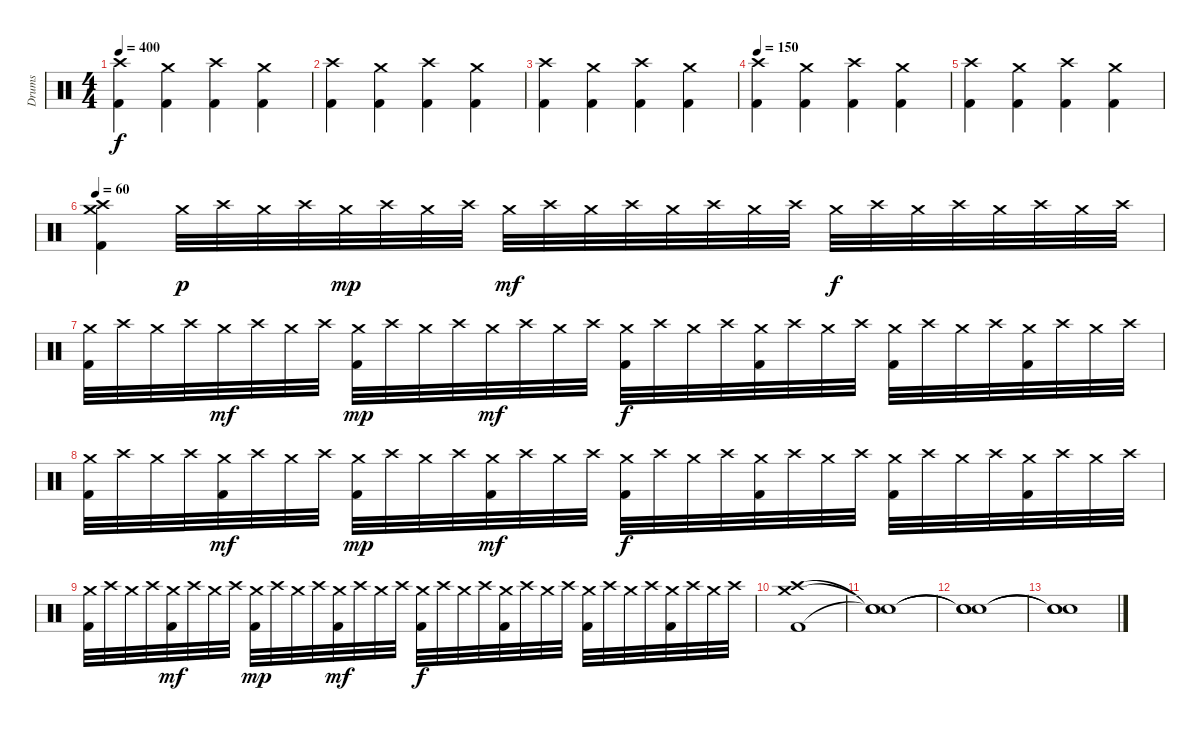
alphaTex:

\track ("Drums" "Drums") {instrument percussion}
\staff {score}
\articulation defaults
\ts (4 4)
\tempo 400
\clef neutral
\ks c
("Kick (hit) 2" "Crash high (hit)").4{dy f} ("Kick (hit) 2" "Crash medium (hit)").4 ("Kick (hit) 2" "Crash high (hit)").4 ("Kick (hit) 2" "Crash medium (hit)").4 |
("Kick (hit) 2" "Crash high (hit)").4 ("Kick (hit) 2" "Crash medium (hit)").4 ("Kick (hit) 2" "Crash high (hit)").4 ("Kick (hit) 2" "Crash medium (hit)").4 |
("Kick (hit) 2" "Crash high (hit)").4 ("Kick (hit) 2" "Crash medium (hit)").4 ("Kick (hit) 2" "Crash high (hit)").4 ("Kick (hit) 2" "Crash medium (hit)").4 |
\tempo 150
("Kick (hit) 2" "Crash high (hit)").4 ("Kick (hit) 2" "Crash medium (hit)").4 ("Kick (hit) 2" "Crash high (hit)").4 ("Kick (hit) 2" "Crash medium (hit)").4 |
("Kick (hit) 2" "Crash high (hit)").4 ("Kick (hit) 2" "Crash medium (hit)").4 ("Kick (hit) 2" "Crash high (hit)").4 ("Kick (hit) 2" "Crash medium (hit)").4 |
\tempo 60
("Kick (hit) 2" "Crash medium (hit)" "Crash high (hit)").4 "Crash medium (hit)".32{dy p} "Crash high (hit)".32 "Crash medium (hit)".32 "Crash high (hit)".32 "Crash medium (hit)".32{dy mp} "Crash high (hit)".32 "Crash medium (hit)".32 "Crash high (hit)".32 "Crash medium (hit)".32{dy mf} "Crash high (hit)".32 "Crash medium (hit)".32 "Crash high (hit)".32 "Crash medium (hit)".32 "Crash high (hit)".32 "Crash medium (hit)".32 "Crash high (hit)".32 "Crash medium (hit)".32{dy f} "Crash high (hit)".32 "Crash medium (hit)".32 "Crash high (hit)".32 "Crash medium (hit)".32 "Crash high (hit)".32 "Crash medium (hit)".32 "Crash high (hit)".32 |
("Kick (hit) 2" "Crash medium (hit)").32 "Crash high (hit)".32 "Crash medium (hit)".32 "Crash high (hit)".32 "Crash medium (hit)".32{dy mf} "Crash high (hit)".32 "Crash medium (hit)".32 "Crash high (hit)".32 ("Kick (hit) 2" "Crash medium (hit)").32{dy mp} "Crash high (hit)".32 "Crash medium (hit)".32 "Crash high (hit)".32 "Crash medium (hit)".32{dy mf} "Crash high (hit)".32 "Crash medium (hit)".32 "Crash high (hit)".32 ("Kick (hit) 2" "Crash medium (hit)").32{dy f} "Crash high (hit)".32 "Crash medium (hit)".32 "Crash high (hit)".32 ("Kick (hit) 2" "Crash medium (hit)").32 "Crash high (hit)".32 "Crash medium (hit)".32 "Crash high (hit)".32 ("Kick (hit) 2" "Crash medium (hit)").32 "Crash high (hit)".32 "Crash medium (hit)".32 "Crash high (hit)".32 ("Kick (hit) 2" "Crash medium (hit)").32 "Crash high (hit)".32 "Crash medium (hit)".32 "Crash high (hit)".32 |
("Kick (hit) 2" "Crash medium (hit)").32 "Crash high (hit)".32 "Crash medium (hit)".32 "Crash high (hit)".32 ("Kick (hit) 2" "Crash medium (hit)").32{dy mf} "Crash high (hit)".32 "Crash medium (hit)".32 "Crash high (hit)".32 ("Kick (hit) 2" "Crash medium (hit)").32{dy mp} "Crash high (hit)".32 "Crash medium (hit)".32 "Crash high (hit)".32 ("Kick (hit) 2" "Crash medium (hit)").32{dy mf} "Crash high (hit)".32 "Crash medium (hit)".32 "Crash high (hit)".32 ("Kick (hit) 2" "Crash medium (hit)").32{dy f} "Crash high (hit)".32 "Crash medium (hit)".32 "Crash high (hit)".32 ("Kick (hit) 2" "Crash medium (hit)").32 "Crash high (hit)".32 "Crash medium (hit)".32 "Crash high (hit)".32 ("Kick (hit) 2" "Crash medium (hit)").32 "Crash high (hit)".32 "Crash medium (hit)".32 "Crash high (hit)".32 ("Kick (hit) 2" "Crash medium (hit)").32 "Crash high (hit)".32 "Crash medium (hit)".32 "Crash high (hit)".32 |
("Kick (hit) 2" "Crash medium (hit)").32 "Crash high (hit)".32 "Crash medium (hit)".32 "Crash high (hit)".32 ("Kick (hit) 2" "Crash medium (hit)").32{dy mf} "Crash high (hit)".32 "Crash medium (hit)".32 "Crash high (hit)".32 ("Kick (hit) 2" "Crash medium (hit)").32{dy mp} "Crash high (hit)".32 "Crash medium (hit)".32 "Crash high (hit)".32 ("Kick (hit) 2" "Crash medium (hit)").32{dy mf} "Crash high (hit)".32 "Crash medium (hit)".32 "Crash high (hit)".32 ("Kick (hit) 2" "Crash medium (hit)").32{dy f} "Crash high (hit)".32 "Crash medium (hit)".32 "Crash high (hit)".32 ("Kick (hit) 2" "Crash medium (hit)").32 "Crash high (hit)".32 "Crash medium (hit)".32 "Crash high (hit)".32 ("Kick (hit) 2" "Crash medium (hit)").32 "Crash high (hit)".32 "Crash medium (hit)".32 "Crash high (hit)".32 ("Kick (hit) 2" "Crash medium (hit)").32 "Crash high (hit)".32 "Crash medium (hit)".32 "Crash high (hit)".32 |
("Kick (hit) 2" "Crash medium (hit)" "Crash high (hit)").1 |
("Snare (hit)"{t} "Snare (hit)"{t} "Snare (hit)"{t}).1 |
("Snare (hit)"{t} "Snare (hit)"{t} "Snare (hit)"{t}).1 |
("Snare (hit)"{t} "Snare (hit)"{t} "Snare (hit)"{t}).1
